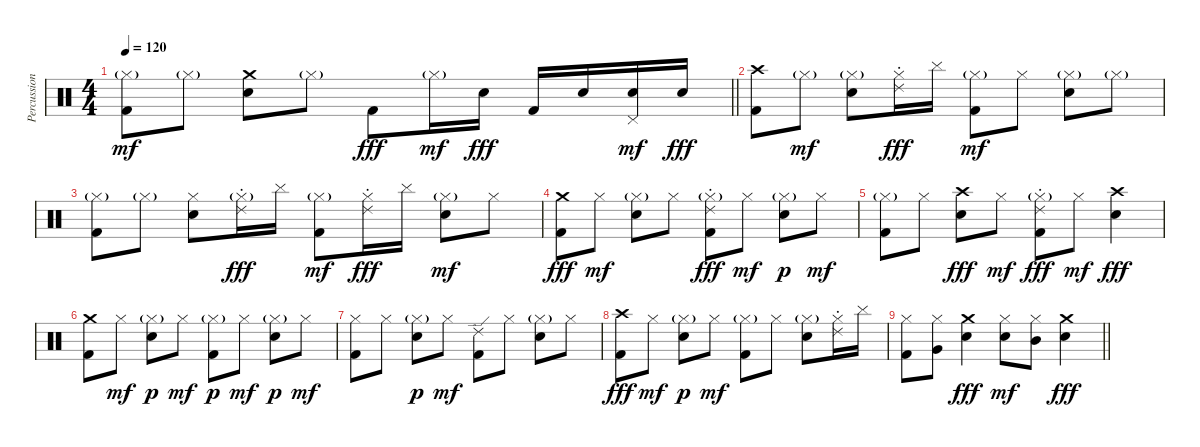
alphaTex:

\track ("Percussions" "Percussion") {instrument percussion}
\staff {score}
\articulation defaults
\ts (4 4)
\tempo 120
\clef neutral
\barLineRight lightlight
\ks c
("Kick (hit) 2" "Hi-Hat (closed)"{g}).8{dy mf} "Hi-Hat (closed)"{g}.8 ("Electric Snare (hit)" "Crash medium (hit)").8 "Hi-Hat (closed)"{g}.8 "Kick (hit) 2".8{dy fff} "Hi-Hat (closed)"{g}.16{dy mf} "Electric Snare (hit)".16{dy fff} "Kick (hit) 2".16 "Electric Snare (hit)".16 ("Electric Snare (hit)" "Pedal Hi-Hat (hit)").16{dy mf} "Electric Snare (hit)".16{dy fff} |
("Kick (hit) 2" "Crash high (hit)").8 "Hi-Hat (closed)"{g}.8{dy mf} ("Electric Snare (hit)" "Hi-Hat (closed)"{g}).8 ("Hi-Hat (closed)" "Ride (choke) 2").16{dy fff} "Cymbal (hit)".16 ("Kick (hit) 2" "Hi-Hat (closed)"{g}).8{dy mf} "Hi-Hat (closed)".8 ("Electric Snare (hit)" "Hi-Hat (closed)"{g}).8 "Hi-Hat (closed)"{g}.8 |
("Kick (hit) 2" "Hi-Hat (closed)"{g}).8 "Hi-Hat (closed)"{g}.8 ("Electric Snare (hit)" "Hi-Hat (closed)").8 ("Hi-Hat (closed)"{g} "Ride (choke) 2").16{dy fff} "Cymbal (hit)".16 ("Kick (hit) 2" "Hi-Hat (closed)"{g}).8{dy mf} ("Hi-Hat (closed)" "Ride (choke) 2").16{dy fff} "Cymbal (hit)".16 ("Electric Snare (hit)" "Hi-Hat (closed)"{g}).8{dy mf} "Hi-Hat (closed)".8 |
("Kick (hit) 2" "Crash medium (hit)").8{dy fff} "Hi-Hat (closed)".8{dy mf} ("Electric Snare (hit)" "Hi-Hat (closed)"{g}).8 "Hi-Hat (closed)".8 ("Kick (hit) 2" "Hi-Hat (closed)"{g} "Ride (choke) 2").8{dy fff} "Hi-Hat (closed)".8{dy mf} ("Electric Snare (hit)" "Hi-Hat (closed)"{g}).8{dy p} "Hi-Hat (closed)".8{dy mf} |
("Kick (hit) 2" "Hi-Hat (closed)"{g}).8 "Hi-Hat (closed)".8 ("Electric Snare (hit)" "Crash high (hit)").8{dy fff} "Hi-Hat (closed)".8{dy mf} ("Kick (hit) 2" "Hi-Hat (closed)"{g} "Ride (choke) 2").8{dy fff} "Hi-Hat (closed)".8{dy mf} ("Electric Snare (hit)" "Crash high (hit)").4{dy fff} |
("Kick (hit) 2" "Crash medium (hit)").8 "Hi-Hat (closed)".8{dy mf} ("Electric Snare (hit)" "Hi-Hat (closed)"{g}).8{dy p} "Hi-Hat (closed)".8{dy mf} ("Kick (hit) 2" "Hi-Hat (closed)"{g}).8{dy p} "Hi-Hat (closed)".8{dy mf} ("Electric Snare (hit)" "Hi-Hat (closed)"{g}).8{dy p} "Hi-Hat (closed)".8{dy mf} |
("Kick (hit) 2" "Hi-Hat (closed)").8 "Hi-Hat (closed)".8 ("Electric Snare (hit)" "Hi-Hat (closed)"{g}).8{dy p} "Hi-Hat (closed)".8{dy mf} ("Kick (hit) 2" "Ride (edge) 2").8 "Hi-Hat (closed)".8 ("Electric Snare (hit)" "Hi-Hat (closed)"{g}).8 "Hi-Hat (closed)".8 |
("Kick (hit) 2" "Crash high (hit)").8{dy fff} "Hi-Hat (closed)".8{dy mf} ("Electric Snare (hit)" "Hi-Hat (closed)"{g}).8{dy p} "Hi-Hat (closed)".8{dy mf} ("Kick (hit) 2" "Hi-Hat (closed)"{g}).8 "Hi-Hat (closed)".8 ("Electric Snare (hit)" "Hi-Hat (closed)"{g}).8 ("Hi-Hat (closed)" "Ride (choke) 2").16 "Cymbal (hit)".16 |
\barLineRight lightlight
("Kick (hit) 2" "Hi-Hat (closed)").8 ("Very Low Tom (hit)" "Hi-Hat (closed)").8 ("Electric Snare (hit)" "Crash medium (hit)").4{dy fff} ("Electric Snare (hit)" "Hi-Hat (closed)").8{dy mf} ("Mid Tom (hit)" "Hi-Hat (closed)").8 ("Electric Snare (hit)" "Crash medium (hit)").4{dy fff}
